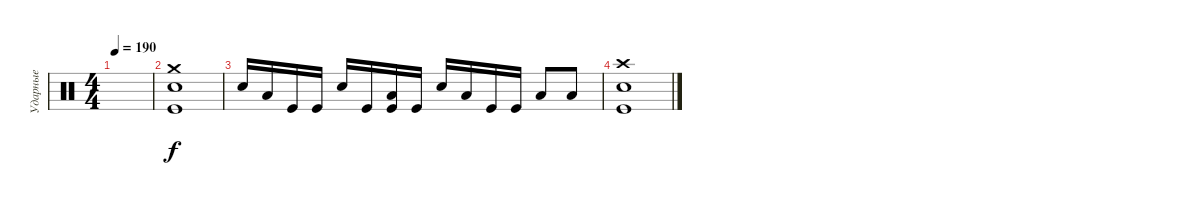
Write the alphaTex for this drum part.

\track ("Ударные" "Ударные") {instrument percussion}
\staff {score}
\articulation defaults
\ts (4 4)
\tempo 190
\clef neutral
\ks c
|
("Crash medium (hit)" "Electric Snare (hit)" "Kick (hit)").1 |
"Electric Snare (hit)".16 "Low Tom (hit)".16 "Kick (hit)".16 "Kick (hit)".16 "Electric Snare (hit)".16 "Kick (hit)".16 ("Low Tom (hit)" "Kick (hit)").16 "Kick (hit)".16 "Electric Snare (hit)".16 "Low Tom (hit)".16 "Kick (hit)".16 "Kick (hit)".16 "Low Tom (hit)".8 "Low Tom (hit)".8 |
("Crash high (hit)" "Electric Snare (hit)" "Kick (hit)").1
